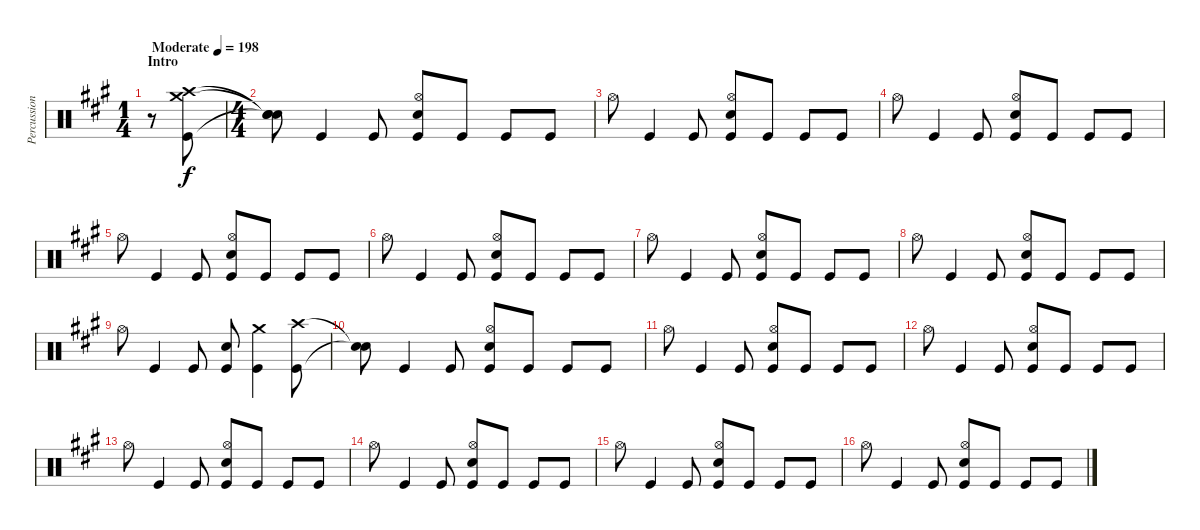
\track ("Percussion" "Percussion") {instrument percussion}
\staff {score}
\articulation defaults
\ts (1 4)
\section ("" "Intro")
\tempo (198 "Moderate")
\clef neutral
\ks a
r.8{dy f} ("Crash high (hit)" "Crash medium (hit)" "Kick (hit)").8 |
\ts (4 4)
("Snare (hit)"{t} "Snare (hit)"{t} "Snare (hit)"{t}).8 "Kick (hit)".4 "Kick (hit)".8 ("Hi-Hat (open)" "Electric Snare (hit)" "Kick (hit)").8 "Kick (hit)".8 "Kick (hit)".8 "Kick (hit)".8 |
"Hi-Hat (open)".8 "Kick (hit)".4 "Kick (hit)".8 ("Hi-Hat (open)" "Electric Snare (hit)" "Kick (hit)").8 "Kick (hit)".8 "Kick (hit)".8 "Kick (hit)".8 |
"Hi-Hat (open)".8 "Kick (hit)".4 "Kick (hit)".8 ("Hi-Hat (open)" "Electric Snare (hit)" "Kick (hit)").8 "Kick (hit)".8 "Kick (hit)".8 "Kick (hit)".8 |
"Hi-Hat (open)".8 "Kick (hit)".4 "Kick (hit)".8 ("Hi-Hat (open)" "Electric Snare (hit)" "Kick (hit)").8 "Kick (hit)".8 "Kick (hit)".8 "Kick (hit)".8 |
"Hi-Hat (open)".8 "Kick (hit)".4 "Kick (hit)".8 ("Hi-Hat (open)" "Electric Snare (hit)" "Kick (hit)").8 "Kick (hit)".8 "Kick (hit)".8 "Kick (hit)".8 |
"Hi-Hat (open)".8 "Kick (hit)".4 "Kick (hit)".8 ("Hi-Hat (open)" "Electric Snare (hit)" "Kick (hit)").8 "Kick (hit)".8 "Kick (hit)".8 "Kick (hit)".8 |
"Hi-Hat (open)".8 "Kick (hit)".4 "Kick (hit)".8 ("Hi-Hat (open)" "Electric Snare (hit)" "Kick (hit)").8 "Kick (hit)".8 "Kick (hit)".8 "Kick (hit)".8 |
"Hi-Hat (open)".8 "Kick (hit)".4 "Kick (hit)".8 ("Electric Snare (hit)" "Kick (hit)").8 ("Crash medium (hit)" "Kick (hit)").4 ("Crash high (hit)" "Kick (hit)").8 |
("Snare (hit)"{t} "Snare (hit)"{t}).8 "Kick (hit)".4 "Kick (hit)".8 ("Hi-Hat (open)" "Electric Snare (hit)" "Kick (hit)").8 "Kick (hit)".8 "Kick (hit)".8 "Kick (hit)".8 |
"Hi-Hat (open)".8 "Kick (hit)".4 "Kick (hit)".8 ("Hi-Hat (open)" "Electric Snare (hit)" "Kick (hit)").8 "Kick (hit)".8 "Kick (hit)".8 "Kick (hit)".8 |
"Hi-Hat (open)".8 "Kick (hit)".4 "Kick (hit)".8 ("Hi-Hat (open)" "Electric Snare (hit)" "Kick (hit)").8 "Kick (hit)".8 "Kick (hit)".8 "Kick (hit)".8 |
"Hi-Hat (open)".8 "Kick (hit)".4 "Kick (hit)".8 ("Hi-Hat (open)" "Electric Snare (hit)" "Kick (hit)").8 "Kick (hit)".8 "Kick (hit)".8 "Kick (hit)".8 |
"Hi-Hat (open)".8 "Kick (hit)".4 "Kick (hit)".8 ("Hi-Hat (open)" "Electric Snare (hit)" "Kick (hit)").8 "Kick (hit)".8 "Kick (hit)".8 "Kick (hit)".8 |
"Hi-Hat (open)".8 "Kick (hit)".4 "Kick (hit)".8 ("Hi-Hat (open)" "Electric Snare (hit)" "Kick (hit)").8 "Kick (hit)".8 "Kick (hit)".8 "Kick (hit)".8 |
"Hi-Hat (open)".8 "Kick (hit)".4 "Kick (hit)".8 ("Hi-Hat (open)" "Electric Snare (hit)" "Kick (hit)").8 "Kick (hit)".8 "Kick (hit)".8 "Kick (hit)".8
